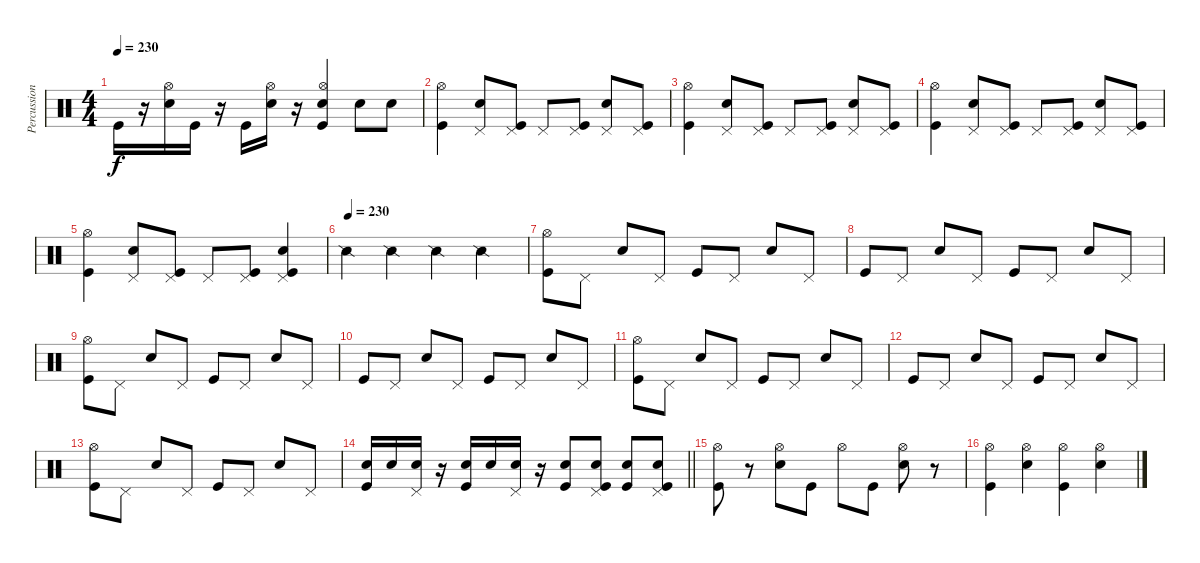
\track ("Percussion" "Percussion") {instrument percussion}
\staff
\articulation defaults
\ts (4 4)
\tempo 230
\clef neutral
\ks c "Kick (hit)".16{dy f}
r.16 ("Hi-Hat (open)" "Electric Snare (hit)").16 "Kick (hit)".16 r.16 "Kick (hit)".16 ("Hi-Hat (open)" "Electric Snare (hit)").16 r.16 ("Hi-Hat (open)" "Electric Snare (hit)" "Kick (hit)").4 "Electric Snare (hit)".8 "Electric Snare (hit)".8 |
("Hi-Hat (open)" "Kick (hit)").4 ("Pedal Hi-Hat (hit)" "Electric Snare (hit)").8 ("Pedal Hi-Hat (hit)" "Kick (hit)").8 "Pedal Hi-Hat (hit)".8 ("Pedal Hi-Hat (hit)" "Kick (hit)").8 ("Pedal Hi-Hat (hit)" "Electric Snare (hit)").8 ("Pedal Hi-Hat (hit)" "Kick (hit)").8 |
("Hi-Hat (open)" "Kick (hit)").4 ("Pedal Hi-Hat (hit)" "Electric Snare (hit)").8 ("Pedal Hi-Hat (hit)" "Kick (hit)").8 "Pedal Hi-Hat (hit)".8 ("Pedal Hi-Hat (hit)" "Kick (hit)").8 ("Pedal Hi-Hat (hit)" "Electric Snare (hit)").8 ("Pedal Hi-Hat (hit)" "Kick (hit)").8 |
("Hi-Hat (open)" "Kick (hit)").4 ("Pedal Hi-Hat (hit)" "Electric Snare (hit)").8 ("Pedal Hi-Hat (hit)" "Kick (hit)").8 "Pedal Hi-Hat (hit)".8 ("Pedal Hi-Hat (hit)" "Kick (hit)").8 ("Pedal Hi-Hat (hit)" "Electric Snare (hit)").8 ("Pedal Hi-Hat (hit)" "Kick (hit)").8 |
("Hi-Hat (open)" "Kick (hit)").4 ("Pedal Hi-Hat (hit)" "Electric Snare (hit)").8 ("Pedal Hi-Hat (hit)" "Kick (hit)").8 "Pedal Hi-Hat (hit)".8 ("Pedal Hi-Hat (hit)" "Kick (hit)").8 ("Pedal Hi-Hat (hit)" "Electric Snare (hit)" "Kick (hit)").4 |
\tempo (230)
"Snare (side stick) 2".4 "Snare (side stick) 2".4 "Snare (side stick) 2".4 "Snare (side stick) 2".4 |
("Hi-Hat (open)" "Kick (hit)").8 "Pedal Hi-Hat (hit)".8 "Electric Snare (hit)".8 "Pedal Hi-Hat (hit)".8 "Kick (hit)".8 "Pedal Hi-Hat (hit)".8 "Electric Snare (hit)".8 "Pedal Hi-Hat (hit)".8 |
"Kick (hit)".8 "Pedal Hi-Hat (hit)".8 "Electric Snare (hit)".8 "Pedal Hi-Hat (hit)".8 "Kick (hit)".8 "Pedal Hi-Hat (hit)".8 "Electric Snare (hit)".8 "Pedal Hi-Hat (hit)".8 |
("Hi-Hat (open)" "Kick (hit)").8 "Pedal Hi-Hat (hit)".8 "Electric Snare (hit)".8 "Pedal Hi-Hat (hit)".8 "Kick (hit)".8 "Pedal Hi-Hat (hit)".8 "Electric Snare (hit)".8 "Pedal Hi-Hat (hit)".8 |
"Kick (hit)".8 "Pedal Hi-Hat (hit)".8 "Electric Snare (hit)".8 "Pedal Hi-Hat (hit)".8 "Kick (hit)".8 "Pedal Hi-Hat (hit)".8 "Electric Snare (hit)".8 "Pedal Hi-Hat (hit)".8 |
("Hi-Hat (open)" "Kick (hit)").8 "Pedal Hi-Hat (hit)".8 "Electric Snare (hit)".8 "Pedal Hi-Hat (hit)".8 "Kick (hit)".8 "Pedal Hi-Hat (hit)".8 "Electric Snare (hit)".8 "Pedal Hi-Hat (hit)".8 |
"Kick (hit)".8 "Pedal Hi-Hat (hit)".8 "Electric Snare (hit)".8 "Pedal Hi-Hat (hit)".8 "Kick (hit)".8 "Pedal Hi-Hat (hit)".8 "Electric Snare (hit)".8 "Pedal Hi-Hat (hit)".8 |
("Hi-Hat (open)" "Kick (hit)").8 "Pedal Hi-Hat (hit)".8 "Electric Snare (hit)".8 "Pedal Hi-Hat (hit)".8 "Kick (hit)".8 "Pedal Hi-Hat (hit)".8 "Electric Snare (hit)".8 "Pedal Hi-Hat (hit)".8 |
\barLineRight lightlight
("Electric Snare (hit)" "Kick (hit)").16 "Electric Snare (hit)".16 ("Pedal Hi-Hat (hit)" "Electric Snare (hit)").16 r.16 ("Electric Snare (hit)" "Kick (hit)").16 "Electric Snare (hit)".16 ("Pedal Hi-Hat (hit)" "Electric Snare (hit)").16 r.16 ("Electric Snare (hit)" "Kick (hit)").8 ("Pedal Hi-Hat (hit)" "Electric Snare (hit)" "Kick (hit)").8 ("Electric Snare (hit)" "Kick (hit)").8 ("Pedal Hi-Hat (hit)" "Electric Snare (hit)" "Kick (hit)").8 |
("Hi-Hat (open)" "Kick (hit)").8 r.8 ("Hi-Hat (open)" "Electric Snare (hit)").8 "Kick (hit)".8 "Hi-Hat (open)".8 "Kick (hit)".8 ("Hi-Hat (open)" "Electric Snare (hit)").8 r.8 |
("Hi-Hat (open)" "Kick (hit)").4 ("Hi-Hat (open)" "Electric Snare (hit)").4 ("Hi-Hat (open)" "Kick (hit)").4 ("Hi-Hat (open)" "Electric Snare (hit)").4
